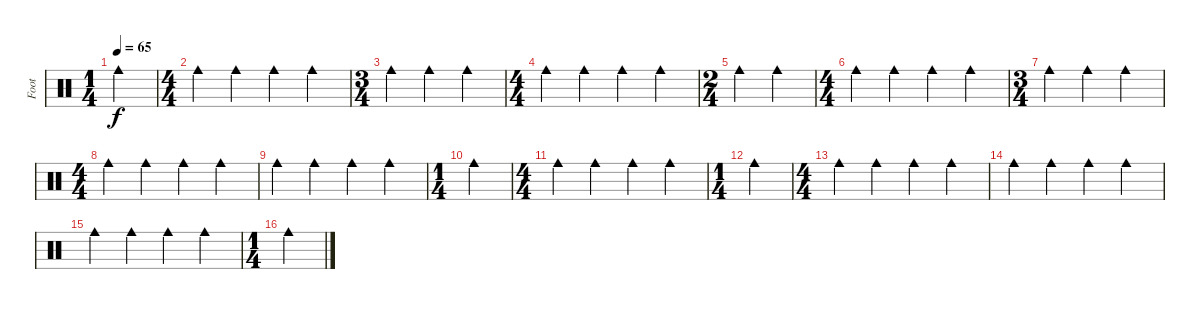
\track ("Foot" "Foot") {instrument percussion}
\staff {score}
\articulation defaults
\ts (1 4)
\tempo 65
\clef neutral
\ks c "Cowbell medium (hit)".4{dy f}
|
\ts (4 4)
"Cowbell medium (hit)".4 "Cowbell medium (hit)".4 "Cowbell medium (hit)".4 "Cowbell medium (hit)".4 |
\ts (3 4)
"Cowbell medium (hit)".4 "Cowbell medium (hit)".4 "Cowbell medium (hit)".4 |
\ts (4 4)
"Cowbell medium (hit)".4 "Cowbell medium (hit)".4 "Cowbell medium (hit)".4 "Cowbell medium (hit)".4 |
\ts (2 4)
"Cowbell medium (hit)".4 "Cowbell medium (hit)".4 |
\ts (4 4)
"Cowbell medium (hit)".4 "Cowbell medium (hit)".4 "Cowbell medium (hit)".4 "Cowbell medium (hit)".4 |
\ts (3 4)
"Cowbell medium (hit)".4 "Cowbell medium (hit)".4 "Cowbell medium (hit)".4 |
\ts (4 4)
"Cowbell medium (hit)".4 "Cowbell medium (hit)".4 "Cowbell medium (hit)".4 "Cowbell medium (hit)".4 |
"Cowbell medium (hit)".4 "Cowbell medium (hit)".4 "Cowbell medium (hit)".4 "Cowbell medium (hit)".4 |
\ts (1 4)
"Cowbell medium (hit)".4 |
\ts (4 4)
"Cowbell medium (hit)".4 "Cowbell medium (hit)".4 "Cowbell medium (hit)".4 "Cowbell medium (hit)".4 |
\ts (1 4)
"Cowbell medium (hit)".4 |
\ts (4 4)
"Cowbell medium (hit)".4 "Cowbell medium (hit)".4 "Cowbell medium (hit)".4 "Cowbell medium (hit)".4 |
"Cowbell medium (hit)".4 "Cowbell medium (hit)".4 "Cowbell medium (hit)".4 "Cowbell medium (hit)".4 |
"Cowbell medium (hit)".4 "Cowbell medium (hit)".4 "Cowbell medium (hit)".4 "Cowbell medium (hit)".4 |
\ts (1 4)
"Cowbell medium (hit)".4
